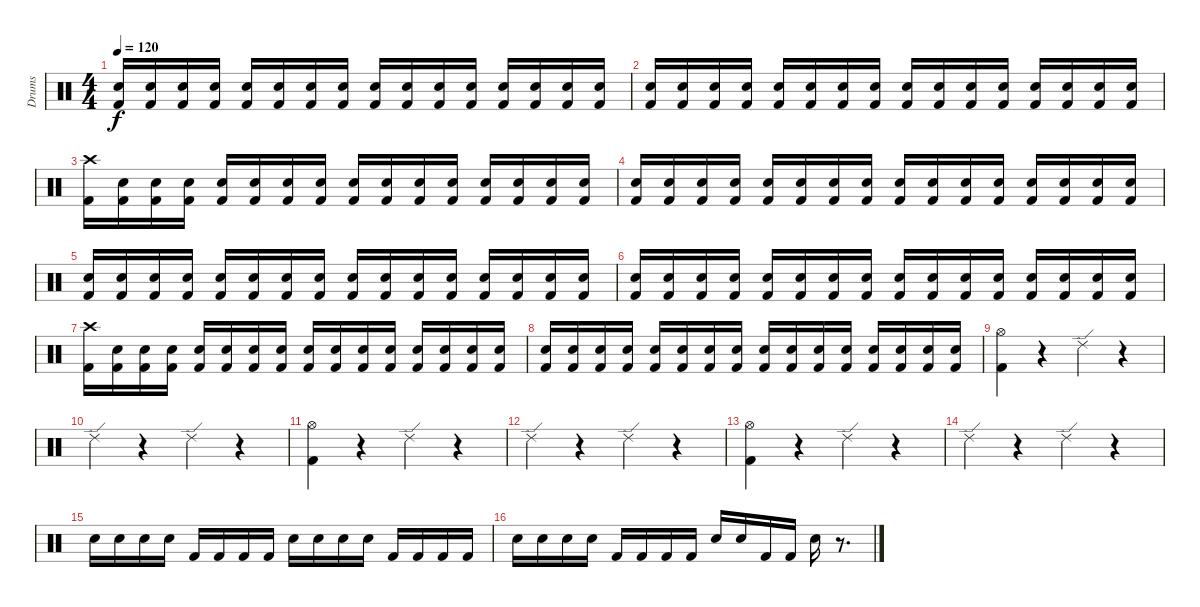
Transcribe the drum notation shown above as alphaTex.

\track ("Drums" "Drums") {instrument percussion}
\staff {score}
\articulation defaults
\ts (4 4)
\tempo 120
\clef neutral
\ks c
("Snare (hit) 2" "Kick (hit) 2").16{dy f} ("Snare (hit) 2" "Kick (hit) 2").16 ("Snare (hit) 2" "Kick (hit) 2").16 ("Snare (hit) 2" "Kick (hit) 2").16 ("Snare (hit) 2" "Kick (hit) 2").16 ("Snare (hit) 2" "Kick (hit) 2").16 ("Snare (hit) 2" "Kick (hit) 2").16 ("Snare (hit) 2" "Kick (hit) 2").16 ("Snare (hit) 2" "Kick (hit) 2").16 ("Snare (hit) 2" "Kick (hit) 2").16 ("Snare (hit) 2" "Kick (hit) 2").16 ("Snare (hit) 2" "Kick (hit) 2").16 ("Snare (hit) 2" "Kick (hit) 2").16 ("Snare (hit) 2" "Kick (hit) 2").16 ("Snare (hit) 2" "Kick (hit) 2").16 ("Snare (hit) 2" "Kick (hit) 2").16 |
("Snare (hit) 2" "Kick (hit) 2").16 ("Snare (hit) 2" "Kick (hit) 2").16 ("Snare (hit) 2" "Kick (hit) 2").16 ("Snare (hit) 2" "Kick (hit) 2").16 ("Snare (hit) 2" "Kick (hit) 2").16 ("Snare (hit) 2" "Kick (hit) 2").16 ("Snare (hit) 2" "Kick (hit) 2").16 ("Snare (hit) 2" "Kick (hit) 2").16 ("Snare (hit) 2" "Kick (hit) 2").16 ("Snare (hit) 2" "Kick (hit) 2").16 ("Snare (hit) 2" "Kick (hit) 2").16 ("Snare (hit) 2" "Kick (hit) 2").16 ("Snare (hit) 2" "Kick (hit) 2").16 ("Snare (hit) 2" "Kick (hit) 2").16 ("Snare (hit) 2" "Kick (hit) 2").16 ("Snare (hit) 2" "Kick (hit) 2").16 |
("Crash high (hit)" "Kick (hit) 2").16 ("Snare (hit) 2" "Kick (hit) 2").16 ("Snare (hit) 2" "Kick (hit) 2").16 ("Snare (hit) 2" "Kick (hit) 2").16 ("Snare (hit) 2" "Kick (hit) 2").16 ("Snare (hit) 2" "Kick (hit) 2").16 ("Snare (hit) 2" "Kick (hit) 2").16 ("Snare (hit) 2" "Kick (hit) 2").16 ("Snare (hit) 2" "Kick (hit) 2").16 ("Snare (hit) 2" "Kick (hit) 2").16 ("Snare (hit) 2" "Kick (hit) 2").16 ("Snare (hit) 2" "Kick (hit) 2").16 ("Snare (hit) 2" "Kick (hit) 2").16 ("Snare (hit) 2" "Kick (hit) 2").16 ("Snare (hit) 2" "Kick (hit) 2").16 ("Snare (hit) 2" "Kick (hit) 2").16 |
("Snare (hit) 2" "Kick (hit) 2").16 ("Snare (hit) 2" "Kick (hit) 2").16 ("Snare (hit) 2" "Kick (hit) 2").16 ("Snare (hit) 2" "Kick (hit) 2").16 ("Snare (hit) 2" "Kick (hit) 2").16 ("Snare (hit) 2" "Kick (hit) 2").16 ("Snare (hit) 2" "Kick (hit) 2").16 ("Snare (hit) 2" "Kick (hit) 2").16 ("Snare (hit) 2" "Kick (hit) 2").16 ("Snare (hit) 2" "Kick (hit) 2").16 ("Snare (hit) 2" "Kick (hit) 2").16 ("Snare (hit) 2" "Kick (hit) 2").16 ("Snare (hit) 2" "Kick (hit) 2").16 ("Snare (hit) 2" "Kick (hit) 2").16 ("Snare (hit) 2" "Kick (hit) 2").16 ("Snare (hit) 2" "Kick (hit) 2").16 |
("Snare (hit) 2" "Kick (hit) 2").16 ("Snare (hit) 2" "Kick (hit) 2").16 ("Snare (hit) 2" "Kick (hit) 2").16 ("Snare (hit) 2" "Kick (hit) 2").16 ("Snare (hit) 2" "Kick (hit) 2").16 ("Snare (hit) 2" "Kick (hit) 2").16 ("Snare (hit) 2" "Kick (hit) 2").16 ("Snare (hit) 2" "Kick (hit) 2").16 ("Snare (hit) 2" "Kick (hit) 2").16 ("Snare (hit) 2" "Kick (hit) 2").16 ("Snare (hit) 2" "Kick (hit) 2").16 ("Snare (hit) 2" "Kick (hit) 2").16 ("Snare (hit) 2" "Kick (hit) 2").16 ("Snare (hit) 2" "Kick (hit) 2").16 ("Snare (hit) 2" "Kick (hit) 2").16 ("Snare (hit) 2" "Kick (hit) 2").16 |
("Snare (hit) 2" "Kick (hit) 2").16 ("Snare (hit) 2" "Kick (hit) 2").16 ("Snare (hit) 2" "Kick (hit) 2").16 ("Snare (hit) 2" "Kick (hit) 2").16 ("Snare (hit) 2" "Kick (hit) 2").16 ("Snare (hit) 2" "Kick (hit) 2").16 ("Snare (hit) 2" "Kick (hit) 2").16 ("Snare (hit) 2" "Kick (hit) 2").16 ("Snare (hit) 2" "Kick (hit) 2").16 ("Snare (hit) 2" "Kick (hit) 2").16 ("Snare (hit) 2" "Kick (hit) 2").16 ("Snare (hit) 2" "Kick (hit) 2").16 ("Snare (hit) 2" "Kick (hit) 2").16 ("Snare (hit) 2" "Kick (hit) 2").16 ("Snare (hit) 2" "Kick (hit) 2").16 ("Snare (hit) 2" "Kick (hit) 2").16 |
("Crash high (hit)" "Kick (hit) 2").16 ("Snare (hit) 2" "Kick (hit) 2").16 ("Snare (hit) 2" "Kick (hit) 2").16 ("Snare (hit) 2" "Kick (hit) 2").16 ("Snare (hit) 2" "Kick (hit) 2").16 ("Snare (hit) 2" "Kick (hit) 2").16 ("Snare (hit) 2" "Kick (hit) 2").16 ("Snare (hit) 2" "Kick (hit) 2").16 ("Snare (hit) 2" "Kick (hit) 2").16 ("Snare (hit) 2" "Kick (hit) 2").16 ("Snare (hit) 2" "Kick (hit) 2").16 ("Snare (hit) 2" "Kick (hit) 2").16 ("Snare (hit) 2" "Kick (hit) 2").16 ("Snare (hit) 2" "Kick (hit) 2").16 ("Snare (hit) 2" "Kick (hit) 2").16 ("Snare (hit) 2" "Kick (hit) 2").16 |
("Snare (hit) 2" "Kick (hit) 2").16 ("Snare (hit) 2" "Kick (hit) 2").16 ("Snare (hit) 2" "Kick (hit) 2").16 ("Snare (hit) 2" "Kick (hit) 2").16 ("Snare (hit) 2" "Kick (hit) 2").16 ("Snare (hit) 2" "Kick (hit) 2").16 ("Snare (hit) 2" "Kick (hit) 2").16 ("Snare (hit) 2" "Kick (hit) 2").16 ("Snare (hit) 2" "Kick (hit) 2").16 ("Snare (hit) 2" "Kick (hit) 2").16 ("Snare (hit) 2" "Kick (hit) 2").16 ("Snare (hit) 2" "Kick (hit) 2").16 ("Snare (hit) 2" "Kick (hit) 2").16 ("Snare (hit) 2" "Kick (hit) 2").16 ("Snare (hit) 2" "Kick (hit) 2").16 ("Snare (hit) 2" "Kick (hit) 2").16 |
("Hi-Hat (open)" "Kick (hit) 2").4 r.4 "Ride (edge) 2".4 r.4 |
"Ride (edge) 2".4 r.4 "Ride (edge) 2".4 r.4 |
("Hi-Hat (open)" "Kick (hit) 2").4 r.4 "Ride (edge) 2".4 r.4 |
"Ride (edge) 2".4 r.4 "Ride (edge) 2".4 r.4 |
("Hi-Hat (open)" "Kick (hit) 2").4 r.4 "Ride (edge) 2".4 r.4 |
"Ride (edge) 2".4 r.4 "Ride (edge) 2".4 r.4 |
"Snare (hit) 2".16 "Snare (hit) 2".16 "Snare (hit) 2".16 "Snare (hit) 2".16 "Kick (hit) 2".16 "Kick (hit) 2".16 "Kick (hit) 2".16 "Kick (hit) 2".16 "Snare (hit) 2".16 "Snare (hit) 2".16 "Snare (hit) 2".16 "Snare (hit) 2".16 "Kick (hit) 2".16 "Kick (hit) 2".16 "Kick (hit) 2".16 "Kick (hit) 2".16 |
"Snare (hit) 2".16 "Snare (hit) 2".16 "Snare (hit) 2".16 "Snare (hit) 2".16 "Kick (hit) 2".16 "Kick (hit) 2".16 "Kick (hit) 2".16 "Kick (hit) 2".16 "Snare (hit) 2".16 "Snare (hit) 2".16 "Kick (hit) 2".16 "Kick (hit) 2".16 "Snare (hit) 2".16 r.8{d}
